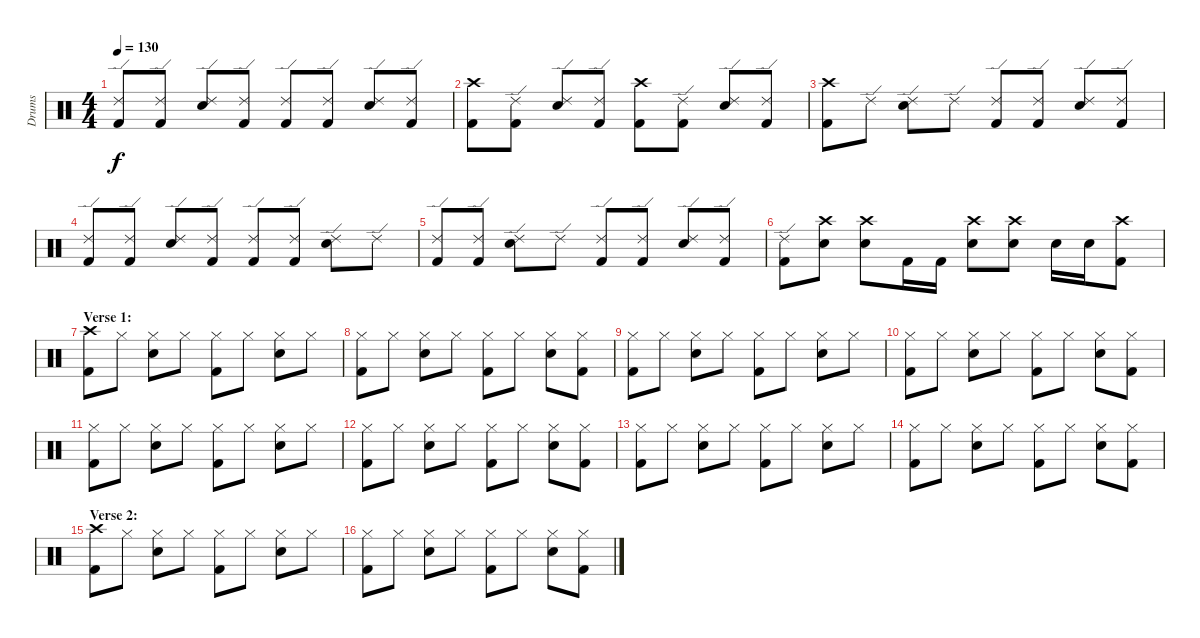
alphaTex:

\track ("Drums" "Drums") {instrument percussion}
\staff {score}
\articulation defaults
\ts (4 4)
\tempo 130
\clef neutral
\ks c
("Ride (edge) 2" "Kick (hit) 2").8{dy f} ("Ride (edge) 2" "Kick (hit) 2").8 ("Ride (edge) 2" "Electric Snare (hit)").8 ("Ride (edge) 2" "Kick (hit) 2").8 ("Ride (edge) 2" "Kick (hit) 2").8 ("Ride (edge) 2" "Kick (hit) 2").8 ("Ride (edge) 2" "Electric Snare (hit)").8 ("Ride (edge) 2" "Kick (hit) 2").8 |
("Crash high (hit)" "Kick (hit) 2").8 ("Ride (edge) 2" "Kick (hit) 2").8 ("Ride (edge) 2" "Electric Snare (hit)").8 ("Ride (edge) 2" "Kick (hit) 2").8 ("Crash high (hit)" "Kick (hit) 2").8 ("Ride (edge) 2" "Kick (hit) 2").8 ("Ride (edge) 2" "Electric Snare (hit)").8 ("Ride (edge) 2" "Kick (hit) 2").8 |
("Crash high (hit)" "Kick (hit) 2").8 "Ride (edge) 2".8 ("Ride (edge) 2" "Electric Snare (hit)").8 "Ride (edge) 2".8 ("Ride (edge) 2" "Kick (hit) 2").8 ("Ride (edge) 2" "Kick (hit) 2").8 ("Ride (edge) 2" "Electric Snare (hit)").8 ("Ride (edge) 2" "Kick (hit) 2").8 |
("Ride (edge) 2" "Kick (hit) 2").8 ("Ride (edge) 2" "Kick (hit) 2").8 ("Ride (edge) 2" "Electric Snare (hit)").8 ("Ride (edge) 2" "Kick (hit) 2").8 ("Ride (edge) 2" "Kick (hit) 2").8 ("Ride (edge) 2" "Kick (hit) 2").8 ("Ride (edge) 2" "Electric Snare (hit)").8 "Ride (edge) 2".8 |
("Ride (edge) 2" "Kick (hit) 2").8 ("Ride (edge) 2" "Kick (hit) 2").8 ("Ride (edge) 2" "Electric Snare (hit)").8 "Ride (edge) 2".8 ("Ride (edge) 2" "Kick (hit) 2").8 ("Ride (edge) 2" "Kick (hit) 2").8 ("Ride (edge) 2" "Electric Snare (hit)").8 ("Ride (edge) 2" "Kick (hit) 2").8 |
("Ride (edge) 2" "Kick (hit) 2").8 ("Crash high (hit)" "Electric Snare (hit)").8 ("Crash high (hit)" "Electric Snare (hit)").8 "Kick (hit) 2".16 "Kick (hit) 2".16 ("Crash high (hit)" "Electric Snare (hit)").8 ("Crash high (hit)" "Electric Snare (hit)").8 "Electric Snare (hit)".16 "Electric Snare (hit)".16 ("Crash high (hit)" "Kick (hit) 2").8 |
\section ("" "Verse 1:")
("Crash high (hit)" "Kick (hit) 2").8 "Hi-Hat (closed)".8 ("Hi-Hat (closed)" "Electric Snare (hit)").8 "Hi-Hat (closed)".8 ("Hi-Hat (closed)" "Kick (hit) 2").8 "Hi-Hat (closed)".8 ("Hi-Hat (closed)" "Electric Snare (hit)").8 "Hi-Hat (closed)".8 |
("Hi-Hat (closed)" "Kick (hit) 2").8 "Hi-Hat (closed)".8 ("Hi-Hat (closed)" "Electric Snare (hit)").8 "Hi-Hat (closed)".8 ("Hi-Hat (closed)" "Kick (hit) 2").8 "Hi-Hat (closed)".8 ("Hi-Hat (closed)" "Electric Snare (hit)").8 ("Hi-Hat (closed)" "Kick (hit) 2").8 |
("Hi-Hat (closed)" "Kick (hit) 2").8 "Hi-Hat (closed)".8 ("Hi-Hat (closed)" "Electric Snare (hit)").8 "Hi-Hat (closed)".8 ("Hi-Hat (closed)" "Kick (hit) 2").8 "Hi-Hat (closed)".8 ("Hi-Hat (closed)" "Electric Snare (hit)").8 "Hi-Hat (closed)".8 |
("Hi-Hat (closed)" "Kick (hit) 2").8 "Hi-Hat (closed)".8 ("Hi-Hat (closed)" "Electric Snare (hit)").8 "Hi-Hat (closed)".8 ("Hi-Hat (closed)" "Kick (hit) 2").8 "Hi-Hat (closed)".8 ("Hi-Hat (closed)" "Electric Snare (hit)").8 ("Hi-Hat (closed)" "Kick (hit) 2").8 |
("Hi-Hat (closed)" "Kick (hit) 2").8 "Hi-Hat (closed)".8 ("Hi-Hat (closed)" "Electric Snare (hit)").8 "Hi-Hat (closed)".8 ("Hi-Hat (closed)" "Kick (hit) 2").8 "Hi-Hat (closed)".8 ("Hi-Hat (closed)" "Electric Snare (hit)").8 "Hi-Hat (closed)".8 |
("Hi-Hat (closed)" "Kick (hit) 2").8 "Hi-Hat (closed)".8 ("Hi-Hat (closed)" "Electric Snare (hit)").8 "Hi-Hat (closed)".8 ("Hi-Hat (closed)" "Kick (hit) 2").8 "Hi-Hat (closed)".8 ("Hi-Hat (closed)" "Electric Snare (hit)").8 ("Hi-Hat (closed)" "Kick (hit) 2").8 |
("Hi-Hat (closed)" "Kick (hit) 2").8 "Hi-Hat (closed)".8 ("Hi-Hat (closed)" "Electric Snare (hit)").8 "Hi-Hat (closed)".8 ("Hi-Hat (closed)" "Kick (hit) 2").8 "Hi-Hat (closed)".8 ("Hi-Hat (closed)" "Electric Snare (hit)").8 "Hi-Hat (closed)".8 |
("Hi-Hat (closed)" "Kick (hit) 2").8 "Hi-Hat (closed)".8 ("Hi-Hat (closed)" "Electric Snare (hit)").8 "Hi-Hat (closed)".8 ("Hi-Hat (closed)" "Kick (hit) 2").8 "Hi-Hat (closed)".8 ("Hi-Hat (closed)" "Electric Snare (hit)").8 ("Hi-Hat (closed)" "Kick (hit) 2").8 |
\section ("" "Verse 2:")
("Crash high (hit)" "Kick (hit) 2").8 "Hi-Hat (closed)".8 ("Hi-Hat (closed)" "Electric Snare (hit)").8 "Hi-Hat (closed)".8 ("Hi-Hat (closed)" "Kick (hit) 2").8 "Hi-Hat (closed)".8 ("Hi-Hat (closed)" "Electric Snare (hit)").8 "Hi-Hat (closed)".8 |
("Hi-Hat (closed)" "Kick (hit) 2").8 "Hi-Hat (closed)".8 ("Hi-Hat (closed)" "Electric Snare (hit)").8 "Hi-Hat (closed)".8 ("Hi-Hat (closed)" "Kick (hit) 2").8 "Hi-Hat (closed)".8 ("Hi-Hat (closed)" "Electric Snare (hit)").8 ("Hi-Hat (closed)" "Kick (hit) 2").8
